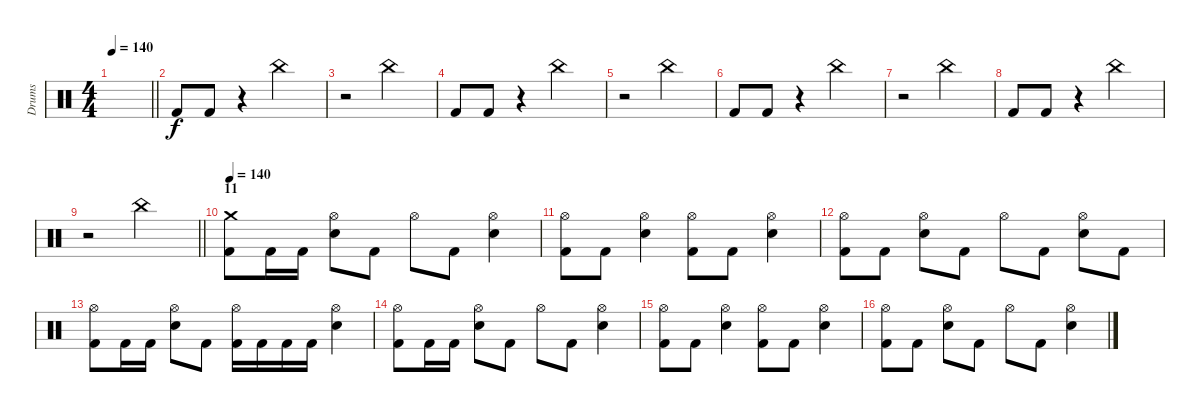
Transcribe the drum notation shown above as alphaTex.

\track ("Drums" "Drums") {instrument percussion}
\staff {score}
\articulation defaults
\ts (4 4)
\tempo 140
\clef neutral
\barLineRight lightlight
\ks c
|
"Kick (hit) 2".8 "Kick (hit) 2".8 r.4 "China (hit)".2 |
r.2 "China (hit)".2 |
"Kick (hit) 2".8 "Kick (hit) 2".8 r.4 "China (hit)".2 |
r.2 "China (hit)".2 |
"Kick (hit) 2".8 "Kick (hit) 2".8 r.4 "China (hit)".2 |
r.2 "China (hit)".2 |
"Kick (hit) 2".8 "Kick (hit) 2".8 r.4 "China (hit)".2 |
\barLineRight lightlight
r.2 "China (hit)".2 |
\section ("" "11")
\tempo 140
("Crash medium (hit)" "Kick (hit) 2").8 "Kick (hit) 2".16 "Kick (hit) 2".16 ("Hi-Hat (open)" "Electric Snare (hit)").8 "Kick (hit) 2".8 "Hi-Hat (open)".8 "Kick (hit) 2".8 ("Hi-Hat (open)" "Electric Snare (hit)").4 |
("Hi-Hat (open)" "Kick (hit) 2").8 "Kick (hit) 2".8 ("Hi-Hat (open)" "Electric Snare (hit)").4 ("Hi-Hat (open)" "Kick (hit) 2").8 "Kick (hit) 2".8 ("Hi-Hat (open)" "Electric Snare (hit)").4 |
("Hi-Hat (open)" "Kick (hit) 2").8 "Kick (hit) 2".8 ("Hi-Hat (open)" "Electric Snare (hit)").8 "Kick (hit) 2".8 "Hi-Hat (open)".8 "Kick (hit) 2".8 ("Hi-Hat (open)" "Electric Snare (hit)").8 "Kick (hit) 2".8 |
("Hi-Hat (open)" "Kick (hit) 2").8 "Kick (hit) 2".16 "Kick (hit) 2".16 ("Hi-Hat (open)" "Electric Snare (hit)").8 "Kick (hit) 2".8 ("Hi-Hat (open)" "Kick (hit) 2").16 "Kick (hit) 2".16 "Kick (hit) 2".16 "Kick (hit) 2".16 ("Hi-Hat (open)" "Electric Snare (hit)").4 |
("Hi-Hat (open)" "Kick (hit) 2").8 "Kick (hit) 2".16 "Kick (hit) 2".16 ("Hi-Hat (open)" "Electric Snare (hit)").8 "Kick (hit) 2".8 "Hi-Hat (open)".8 "Kick (hit) 2".8 ("Hi-Hat (open)" "Electric Snare (hit)").4 |
("Hi-Hat (open)" "Kick (hit) 2").8 "Kick (hit) 2".8 ("Hi-Hat (open)" "Electric Snare (hit)").4 ("Hi-Hat (open)" "Kick (hit) 2").8 "Kick (hit) 2".8 ("Hi-Hat (open)" "Electric Snare (hit)").4 |
("Hi-Hat (open)" "Kick (hit) 2").8 "Kick (hit) 2".8 ("Hi-Hat (open)" "Electric Snare (hit)").8 "Kick (hit) 2".8 "Hi-Hat (open)".8 "Kick (hit) 2".8 ("Hi-Hat (open)" "Electric Snare (hit)").4
